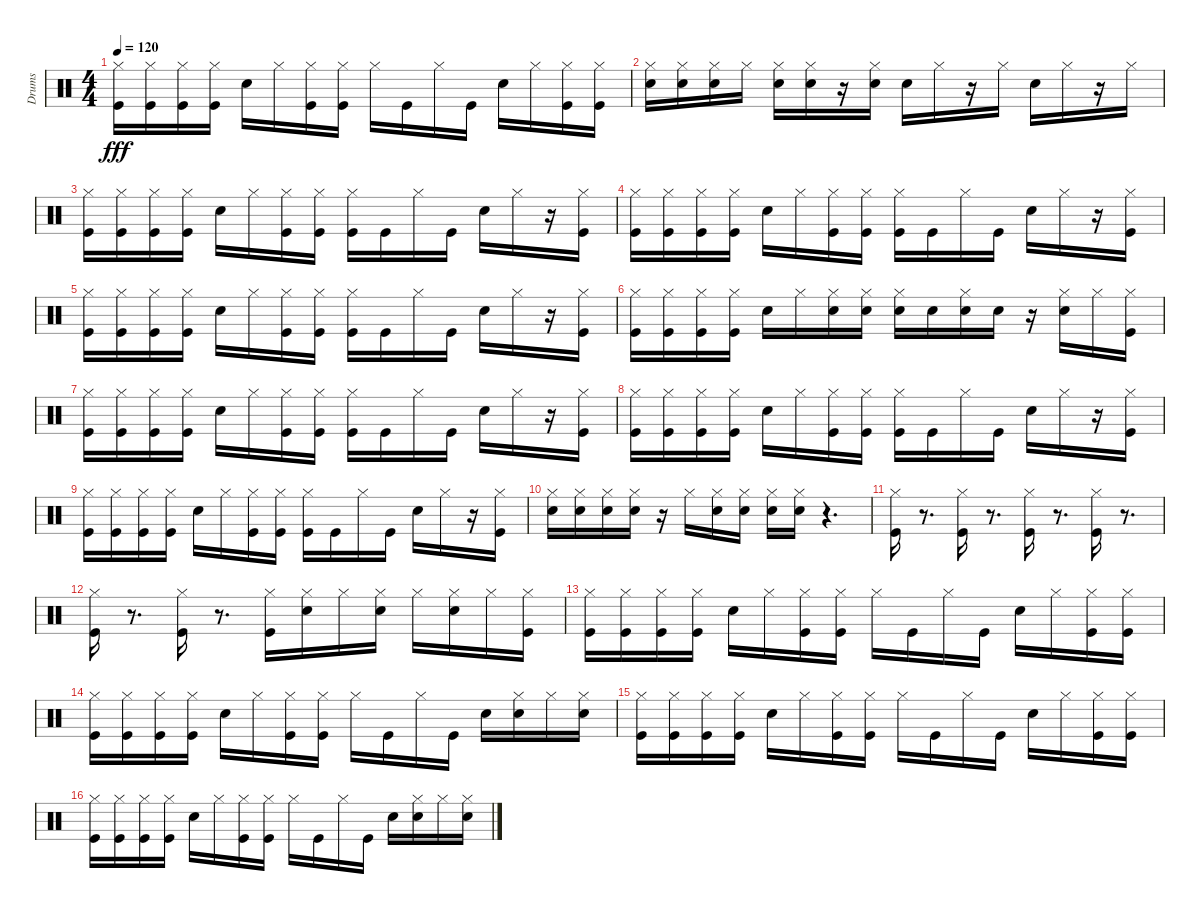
\track ("Drums" "Drums") {instrument percussion}
\staff {score}
\articulation defaults
\ts (4 4)
\tempo 120
\clef neutral
\ks c
("Kick (hit)" "Hi-Hat (closed)").16{dy fff} ("Kick (hit)" "Hi-Hat (closed)").16 ("Kick (hit)" "Hi-Hat (closed)").16 ("Kick (hit)" "Hi-Hat (closed)").16 "Snare (hit) 2".16 "Hi-Hat (closed)".16 ("Kick (hit)" "Hi-Hat (closed)").16 ("Kick (hit)" "Hi-Hat (closed)").16 "Hi-Hat (closed)".16 "Kick (hit)".16 "Hi-Hat (closed)".16 "Kick (hit)".16 "Snare (hit) 2".16 "Hi-Hat (closed)".16 ("Kick (hit)" "Hi-Hat (closed)").16 ("Kick (hit)" "Hi-Hat (closed)").16 |
("Snare (hit) 2" "Hi-Hat (closed)").16 ("Snare (hit) 2" "Hi-Hat (closed)").16 ("Snare (hit) 2" "Hi-Hat (closed)").16 "Hi-Hat (closed)".16 ("Snare (hit) 2" "Hi-Hat (closed)").16 ("Snare (hit) 2" "Hi-Hat (closed)").16 r.16 ("Snare (hit) 2" "Hi-Hat (closed)").16 "Snare (hit) 2".16 "Hi-Hat (closed)".16 r.16 "Hi-Hat (closed)".16 "Snare (hit) 2".16 "Hi-Hat (closed)".16 r.16 "Hi-Hat (closed)".16 |
("Kick (hit)" "Hi-Hat (closed)").16 ("Kick (hit)" "Hi-Hat (closed)").16 ("Kick (hit)" "Hi-Hat (closed)").16 ("Kick (hit)" "Hi-Hat (closed)").16 "Snare (hit) 2".16 "Hi-Hat (closed)".16 ("Kick (hit)" "Hi-Hat (closed)").16 ("Kick (hit)" "Hi-Hat (closed)").16 ("Kick (hit)" "Hi-Hat (closed)").16 "Kick (hit)".16 "Hi-Hat (closed)".16 "Kick (hit)".16 "Snare (hit) 2".16 "Hi-Hat (closed)".16 r.16 ("Kick (hit)" "Hi-Hat (closed)").16 |
("Kick (hit)" "Hi-Hat (closed)").16 ("Kick (hit)" "Hi-Hat (closed)").16 ("Kick (hit)" "Hi-Hat (closed)").16 ("Kick (hit)" "Hi-Hat (closed)").16 "Snare (hit) 2".16 "Hi-Hat (closed)".16 ("Kick (hit)" "Hi-Hat (closed)").16 ("Kick (hit)" "Hi-Hat (closed)").16 ("Kick (hit)" "Hi-Hat (closed)").16 "Kick (hit)".16 "Hi-Hat (closed)".16 "Kick (hit)".16 "Snare (hit) 2".16 "Hi-Hat (closed)".16 r.16 ("Kick (hit)" "Hi-Hat (closed)").16 |
("Kick (hit)" "Hi-Hat (closed)").16 ("Kick (hit)" "Hi-Hat (closed)").16 ("Kick (hit)" "Hi-Hat (closed)").16 ("Kick (hit)" "Hi-Hat (closed)").16 "Snare (hit) 2".16 "Hi-Hat (closed)".16 ("Kick (hit)" "Hi-Hat (closed)").16 ("Kick (hit)" "Hi-Hat (closed)").16 ("Kick (hit)" "Hi-Hat (closed)").16 "Kick (hit)".16 "Hi-Hat (closed)".16 "Kick (hit)".16 "Snare (hit) 2".16 "Hi-Hat (closed)".16 r.16 ("Kick (hit)" "Hi-Hat (closed)").16 |
("Kick (hit)" "Hi-Hat (closed)").16 ("Kick (hit)" "Hi-Hat (closed)").16 ("Kick (hit)" "Hi-Hat (closed)").16 ("Kick (hit)" "Hi-Hat (closed)").16 "Snare (hit) 2".16 "Hi-Hat (closed)".16 ("Snare (hit) 2" "Hi-Hat (closed)").16 ("Snare (hit) 2" "Hi-Hat (closed)").16 ("Snare (hit) 2" "Hi-Hat (closed)").16 "Snare (hit) 2".16 ("Snare (hit) 2" "Hi-Hat (closed)").16 "Snare (hit) 2".16 r.16 ("Snare (hit) 2" "Hi-Hat (closed)").16 "Hi-Hat (closed)".16 ("Kick (hit)" "Hi-Hat (closed)").16 |
("Kick (hit)" "Hi-Hat (closed)").16 ("Kick (hit)" "Hi-Hat (closed)").16 ("Kick (hit)" "Hi-Hat (closed)").16 ("Kick (hit)" "Hi-Hat (closed)").16 "Snare (hit) 2".16 "Hi-Hat (closed)".16 ("Kick (hit)" "Hi-Hat (closed)").16 ("Kick (hit)" "Hi-Hat (closed)").16 ("Kick (hit)" "Hi-Hat (closed)").16 "Kick (hit)".16 "Hi-Hat (closed)".16 "Kick (hit)".16 "Snare (hit) 2".16 "Hi-Hat (closed)".16 r.16 ("Kick (hit)" "Hi-Hat (closed)").16 |
("Kick (hit)" "Hi-Hat (closed)").16 ("Kick (hit)" "Hi-Hat (closed)").16 ("Kick (hit)" "Hi-Hat (closed)").16 ("Kick (hit)" "Hi-Hat (closed)").16 "Snare (hit) 2".16 "Hi-Hat (closed)".16 ("Kick (hit)" "Hi-Hat (closed)").16 ("Kick (hit)" "Hi-Hat (closed)").16 ("Kick (hit)" "Hi-Hat (closed)").16 "Kick (hit)".16 "Hi-Hat (closed)".16 "Kick (hit)".16 "Snare (hit) 2".16 "Hi-Hat (closed)".16 r.16 ("Kick (hit)" "Hi-Hat (closed)").16 |
("Kick (hit)" "Hi-Hat (closed)").16 ("Kick (hit)" "Hi-Hat (closed)").16 ("Kick (hit)" "Hi-Hat (closed)").16 ("Kick (hit)" "Hi-Hat (closed)").16 "Snare (hit) 2".16 "Hi-Hat (closed)".16 ("Kick (hit)" "Hi-Hat (closed)").16 ("Kick (hit)" "Hi-Hat (closed)").16 ("Kick (hit)" "Hi-Hat (closed)").16 "Kick (hit)".16 "Hi-Hat (closed)".16 "Kick (hit)".16 "Snare (hit) 2".16 "Hi-Hat (closed)".16 r.16 ("Kick (hit)" "Hi-Hat (closed)").16 |
("Snare (hit) 2" "Hi-Hat (closed)").16 ("Snare (hit) 2" "Hi-Hat (closed)").16 ("Snare (hit) 2" "Hi-Hat (closed)").16 ("Snare (hit) 2" "Hi-Hat (closed)").16 r.16 "Hi-Hat (closed)".16 ("Snare (hit) 2" "Hi-Hat (closed)").16 ("Snare (hit) 2" "Hi-Hat (closed)").16 ("Snare (hit) 2" "Hi-Hat (closed)").16 ("Snare (hit) 2" "Hi-Hat (closed)").16 r.4{d} |
("Kick (hit)" "Hi-Hat (closed)").16 r.8{d} ("Kick (hit)" "Hi-Hat (closed)").16 r.8{d} ("Kick (hit)" "Hi-Hat (closed)").16 r.8{d} ("Kick (hit)" "Hi-Hat (closed)").16 r.8{d} |
("Kick (hit)" "Hi-Hat (closed)").16 r.8{d} ("Kick (hit)" "Hi-Hat (closed)").16 r.8{d} ("Kick (hit)" "Hi-Hat (closed)").16 ("Snare (hit) 2" "Hi-Hat (closed)").16 "Hi-Hat (closed)".16 ("Snare (hit) 2" "Hi-Hat (closed)").16 "Hi-Hat (closed)".16 ("Snare (hit) 2" "Hi-Hat (closed)").16 "Hi-Hat (closed)".16 ("Kick (hit)" "Hi-Hat (closed)").16 |
("Kick (hit)" "Hi-Hat (closed)").16 ("Kick (hit)" "Hi-Hat (closed)").16 ("Kick (hit)" "Hi-Hat (closed)").16 ("Kick (hit)" "Hi-Hat (closed)").16 "Snare (hit) 2".16 "Hi-Hat (closed)".16 ("Kick (hit)" "Hi-Hat (closed)").16 ("Kick (hit)" "Hi-Hat (closed)").16 "Hi-Hat (closed)".16 "Kick (hit)".16 "Hi-Hat (closed)".16 "Kick (hit)".16 "Snare (hit) 2".16 "Hi-Hat (closed)".16 ("Kick (hit)" "Hi-Hat (closed)").16 ("Kick (hit)" "Hi-Hat (closed)").16 |
("Kick (hit)" "Hi-Hat (closed)").16 ("Kick (hit)" "Hi-Hat (closed)").16 ("Kick (hit)" "Hi-Hat (closed)").16 ("Kick (hit)" "Hi-Hat (closed)").16 "Snare (hit) 2".16 "Hi-Hat (closed)".16 ("Kick (hit)" "Hi-Hat (closed)").16 ("Kick (hit)" "Hi-Hat (closed)").16 "Hi-Hat (closed)".16 "Kick (hit)".16 "Hi-Hat (closed)".16 "Kick (hit)".16 "Snare (hit) 2".16 ("Snare (hit) 2" "Hi-Hat (closed)").16 "Hi-Hat (closed)".16 ("Snare (hit) 2" "Hi-Hat (closed)").16 |
("Kick (hit)" "Hi-Hat (closed)").16 ("Kick (hit)" "Hi-Hat (closed)").16 ("Kick (hit)" "Hi-Hat (closed)").16 ("Kick (hit)" "Hi-Hat (closed)").16 "Snare (hit) 2".16 "Hi-Hat (closed)".16 ("Kick (hit)" "Hi-Hat (closed)").16 ("Kick (hit)" "Hi-Hat (closed)").16 "Hi-Hat (closed)".16 "Kick (hit)".16 "Hi-Hat (closed)".16 "Kick (hit)".16 "Snare (hit) 2".16 "Hi-Hat (closed)".16 ("Kick (hit)" "Hi-Hat (closed)").16 ("Kick (hit)" "Hi-Hat (closed)").16 |
("Kick (hit)" "Hi-Hat (closed)").16 ("Kick (hit)" "Hi-Hat (closed)").16 ("Kick (hit)" "Hi-Hat (closed)").16 ("Kick (hit)" "Hi-Hat (closed)").16 "Snare (hit) 2".16 "Hi-Hat (closed)".16 ("Kick (hit)" "Hi-Hat (closed)").16 ("Kick (hit)" "Hi-Hat (closed)").16 "Hi-Hat (closed)".16 "Kick (hit)".16 "Hi-Hat (closed)".16 "Kick (hit)".16 "Snare (hit) 2".16 ("Snare (hit) 2" "Hi-Hat (closed)").16 "Hi-Hat (closed)".16 ("Snare (hit) 2" "Hi-Hat (closed)").16
